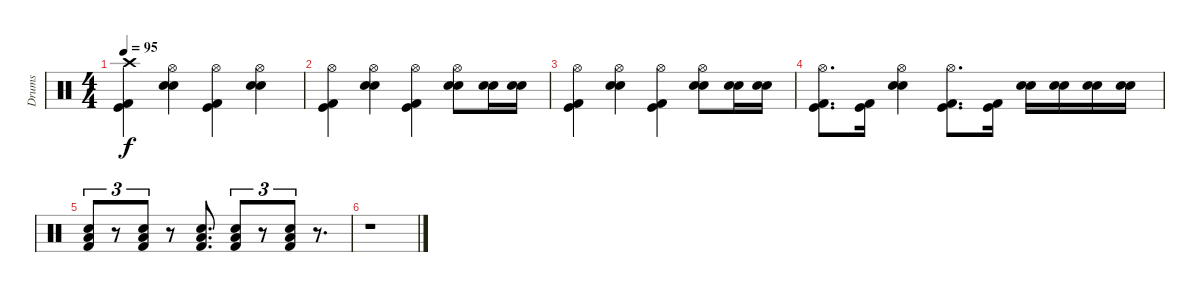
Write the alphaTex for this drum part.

\track ("Drums" "Drums") {instrument percussion}
\staff {score}
\articulation defaults
\ts (4 4)
\tempo 95
\clef neutral
\ks c
("Crash high (hit)" "Kick (hit)" "Kick (hit) 2").4{dy f} ("Hi-Hat (open)" "Snare (hit) 2" "Electric Snare (hit)").4 ("Hi-Hat (open)" "Kick (hit)" "Kick (hit) 2").4 ("Hi-Hat (open)" "Snare (hit) 2" "Electric Snare (hit)").4 |
("Hi-Hat (open)" "Kick (hit)" "Kick (hit) 2").4 ("Hi-Hat (open)" "Snare (hit) 2" "Electric Snare (hit)").4 ("Hi-Hat (open)" "Kick (hit)" "Kick (hit) 2").4 ("Hi-Hat (open)" "Snare (hit) 2" "Electric Snare (hit)").8 ("Snare (hit) 2" "Electric Snare (hit)").16 ("Snare (hit) 2" "Electric Snare (hit)").16 |
("Hi-Hat (open)" "Kick (hit)" "Kick (hit) 2").4 ("Hi-Hat (open)" "Snare (hit) 2" "Electric Snare (hit)").4 ("Hi-Hat (open)" "Kick (hit)" "Kick (hit) 2").4 ("Hi-Hat (open)" "Snare (hit) 2" "Electric Snare (hit)").8 ("Snare (hit) 2" "Electric Snare (hit)").16 ("Snare (hit) 2" "Electric Snare (hit)").16 |
("Hi-Hat (open)" "Kick (hit)" "Kick (hit) 2").8{d} ("Kick (hit)" "Kick (hit) 2").16 ("Hi-Hat (open)" "Snare (hit) 2" "Electric Snare (hit)").4 ("Hi-Hat (open)" "Kick (hit)" "Kick (hit) 2").8{d} ("Kick (hit)" "Kick (hit) 2").16 ("Snare (hit) 2" "Electric Snare (hit)").16 ("Snare (hit) 2" "Electric Snare (hit)").16 ("Snare (hit) 2" "Electric Snare (hit)").16 ("Snare (hit) 2" "Electric Snare (hit)").16 |
("Snare (hit) 2" "Low Tom (hit)" "Kick (hit) 2").8{tu (3 2)} r.8{tu (3 2)} ("Snare (hit) 2" "Low Tom (hit)" "Kick (hit) 2").8{tu (3 2)} r.8 ("Snare (hit) 2" "Low Tom (hit)" "Kick (hit) 2").8{d} ("Snare (hit) 2" "Low Tom (hit)" "Kick (hit) 2").8{tu (3 2)} r.8{tu (3 2)} ("Snare (hit) 2" "Low Tom (hit)" "Kick (hit) 2").8{tu (3 2)} r.8{d} |
r.1
